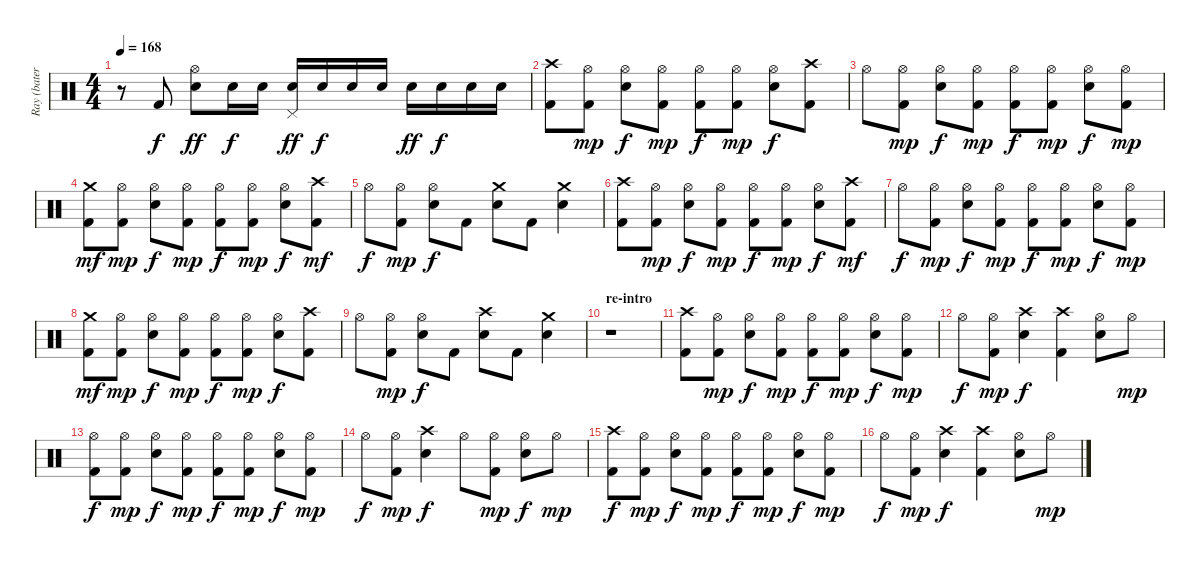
\track ("Ray (batería)" "Ray (bater") {instrument percussion}
\staff {score}
\articulation defaults
\ts (4 4)
\tempo 168
\clef neutral
\ks c
r.8{dy f} "Kick (hit) 2".8 ("Hi-Hat (open)" "Snare (hit) 2").8{dy ff} "Snare (hit) 2".16{dy f} "Snare (hit) 2".16 ("Snare (hit) 2" "Pedal Hi-Hat (hit)").16{dy ff} "Snare (hit) 2".16{dy f} "Snare (hit) 2".16 "Snare (hit) 2".16 "Snare (hit) 2".16{dy ff} "Snare (hit) 2".16{dy f} "Snare (hit) 2".16 "Snare (hit) 2".16 |
("Crash high (hit)" "Kick (hit) 2").8 ("Hi-Hat (open)" "Kick (hit) 2").8{dy mp} ("Hi-Hat (open)" "Snare (hit) 2").8{dy f} ("Hi-Hat (open)" "Kick (hit) 2").8{dy mp} ("Hi-Hat (open)" "Kick (hit) 2").8{dy f} ("Hi-Hat (open)" "Kick (hit) 2").8{dy mp} ("Hi-Hat (open)" "Snare (hit) 2").8{dy f} ("Crash high (hit)" "Kick (hit) 2").8 |
"Hi-Hat (open)".8 ("Hi-Hat (open)" "Kick (hit) 2").8{dy mp} ("Hi-Hat (open)" "Snare (hit) 2").8{dy f} ("Hi-Hat (open)" "Kick (hit) 2").8{dy mp} ("Hi-Hat (open)" "Kick (hit) 2").8{dy f} ("Hi-Hat (open)" "Kick (hit) 2").8{dy mp} ("Hi-Hat (open)" "Snare (hit) 2").8{dy f} ("Hi-Hat (open)" "Kick (hit) 2").8{dy mp} |
("Crash medium (hit)" "Kick (hit) 2").8{dy mf} ("Hi-Hat (open)" "Kick (hit) 2").8{dy mp} ("Hi-Hat (open)" "Snare (hit) 2").8{dy f} ("Hi-Hat (open)" "Kick (hit) 2").8{dy mp} ("Hi-Hat (open)" "Kick (hit) 2").8{dy f} ("Hi-Hat (open)" "Kick (hit) 2").8{dy mp} ("Hi-Hat (open)" "Snare (hit) 2").8{dy f} ("Crash high (hit)" "Kick (hit) 2").8{dy mf} |
"Hi-Hat (open)".8{dy f} ("Hi-Hat (open)" "Kick (hit) 2").8{dy mp} ("Hi-Hat (open)" "Snare (hit) 2").8{dy f} "Kick (hit) 2".8 ("Crash medium (hit)" "Snare (hit) 2").8 "Kick (hit) 2".8 ("Crash medium (hit)" "Snare (hit) 2").4 |
("Crash high (hit)" "Kick (hit) 2").8 ("Hi-Hat (open)" "Kick (hit) 2").8{dy mp} ("Hi-Hat (open)" "Snare (hit) 2").8{dy f} ("Hi-Hat (open)" "Kick (hit) 2").8{dy mp} ("Hi-Hat (open)" "Kick (hit) 2").8{dy f} ("Hi-Hat (open)" "Kick (hit) 2").8{dy mp} ("Hi-Hat (open)" "Snare (hit) 2").8{dy f} ("Crash high (hit)" "Kick (hit) 2").8{dy mf} |
"Hi-Hat (open)".8{dy f} ("Hi-Hat (open)" "Kick (hit) 2").8{dy mp} ("Hi-Hat (open)" "Snare (hit) 2").8{dy f} ("Hi-Hat (open)" "Kick (hit) 2").8{dy mp} ("Hi-Hat (open)" "Kick (hit) 2").8{dy f} ("Hi-Hat (open)" "Kick (hit) 2").8{dy mp} ("Hi-Hat (open)" "Snare (hit) 2").8{dy f} ("Hi-Hat (open)" "Kick (hit) 2").8{dy mp} |
("Crash medium (hit)" "Kick (hit) 2").8{dy mf} ("Hi-Hat (open)" "Kick (hit) 2").8{dy mp} ("Hi-Hat (open)" "Snare (hit) 2").8{dy f} ("Hi-Hat (open)" "Kick (hit) 2").8{dy mp} ("Hi-Hat (open)" "Kick (hit) 2").8{dy f} ("Hi-Hat (open)" "Kick (hit) 2").8{dy mp} ("Hi-Hat (open)" "Snare (hit) 2").8{dy f} ("Crash high (hit)" "Kick (hit) 2").8 |
"Hi-Hat (open)".8 ("Hi-Hat (open)" "Kick (hit) 2").8{dy mp} ("Hi-Hat (open)" "Snare (hit) 2").8{dy f} "Kick (hit) 2".8 ("Crash high (hit)" "Snare (hit) 2").8 "Kick (hit) 2".8 ("Crash medium (hit)" "Snare (hit) 2").4 |
\section ("" "re-intro")
r.1 |
("Crash high (hit)" "Kick (hit) 2").8 ("Hi-Hat (open)" "Kick (hit) 2").8{dy mp} ("Hi-Hat (open)" "Snare (hit) 2").8{dy f} ("Hi-Hat (open)" "Kick (hit) 2").8{dy mp} ("Hi-Hat (open)" "Kick (hit) 2").8{dy f} ("Hi-Hat (open)" "Kick (hit) 2").8{dy mp} ("Hi-Hat (open)" "Snare (hit) 2").8{dy f} ("Hi-Hat (open)" "Kick (hit) 2").8{dy mp} |
"Hi-Hat (open)".8{dy f} ("Hi-Hat (open)" "Kick (hit) 2").8{dy mp} ("Crash high (hit)" "Snare (hit) 2").4{dy f} ("Crash high (hit)" "Kick (hit) 2").4 ("Hi-Hat (open)" "Snare (hit) 2").8 "Hi-Hat (open)".8{dy mp} |
("Hi-Hat (open)" "Kick (hit) 2").8{dy f} ("Hi-Hat (open)" "Kick (hit) 2").8{dy mp} ("Hi-Hat (open)" "Snare (hit) 2").8{dy f} ("Hi-Hat (open)" "Kick (hit) 2").8{dy mp} ("Hi-Hat (open)" "Kick (hit) 2").8{dy f} ("Hi-Hat (open)" "Kick (hit) 2").8{dy mp} ("Hi-Hat (open)" "Snare (hit) 2").8{dy f} ("Hi-Hat (open)" "Kick (hit) 2").8{dy mp} |
"Hi-Hat (open)".8{dy f} ("Hi-Hat (open)" "Kick (hit) 2").8{dy mp} ("Crash high (hit)" "Snare (hit) 2").4{dy f} "Hi-Hat (open)".8 ("Hi-Hat (open)" "Kick (hit) 2").8{dy mp} ("Hi-Hat (open)" "Snare (hit) 2").8{dy f} "Hi-Hat (open)".8{dy mp} |
("Crash high (hit)" "Kick (hit) 2").8{dy f} ("Hi-Hat (open)" "Kick (hit) 2").8{dy mp} ("Hi-Hat (open)" "Snare (hit) 2").8{dy f} ("Hi-Hat (open)" "Kick (hit) 2").8{dy mp} ("Hi-Hat (open)" "Kick (hit) 2").8{dy f} ("Hi-Hat (open)" "Kick (hit) 2").8{dy mp} ("Hi-Hat (open)" "Snare (hit) 2").8{dy f} ("Hi-Hat (open)" "Kick (hit) 2").8{dy mp} |
"Hi-Hat (open)".8{dy f} ("Hi-Hat (open)" "Kick (hit) 2").8{dy mp} ("Crash high (hit)" "Snare (hit) 2").4{dy f} ("Crash high (hit)" "Kick (hit) 2").4 ("Hi-Hat (open)" "Snare (hit) 2").8 "Hi-Hat (open)".8{dy mp}
